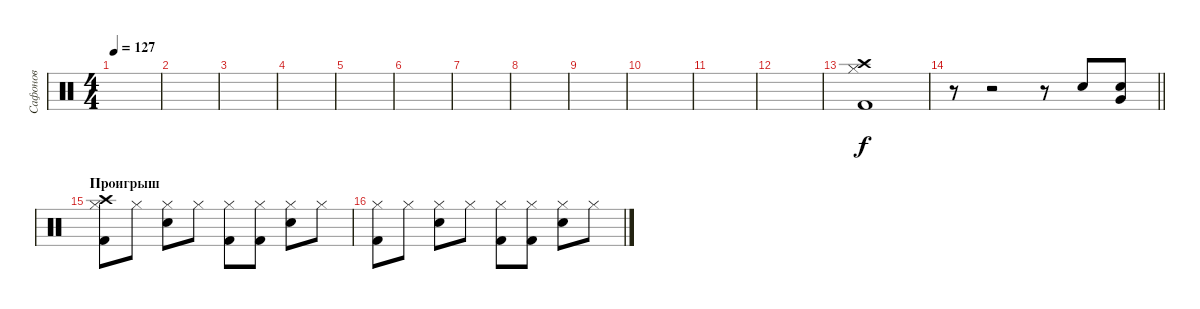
\track ("Сафонов" "Сафонов") {instrument percussion}
\staff {score}
\articulation defaults
\ts (4 4)
\tempo 127
\clef neutral
\ks c
|
|
|
|
|
|
|
|
|
|
|
|
("Crash high (hit)" "Hi-Hat (closed)" "Kick (hit) 2").1 |
\barLineRight lightlight
r.8 r.2 r.8 "Electric Snare (hit)".8 ("Very Low Tom (hit)" "Electric Snare (hit)").8 |
\section ("" "Проигрыш")
("Crash high (hit)" "Hi-Hat (closed)" "Kick (hit) 2").8 "Hi-Hat (closed)".8 ("Hi-Hat (closed)" "Electric Snare (hit)").8 "Hi-Hat (closed)".8 ("Hi-Hat (closed)" "Kick (hit) 2").8 ("Hi-Hat (closed)" "Kick (hit) 2").8 ("Hi-Hat (closed)" "Electric Snare (hit)").8 "Hi-Hat (closed)".8 |
("Hi-Hat (closed)" "Kick (hit) 2").8 "Hi-Hat (closed)".8 ("Hi-Hat (closed)" "Electric Snare (hit)").8 "Hi-Hat (closed)".8 ("Hi-Hat (closed)" "Kick (hit) 2").8 ("Hi-Hat (closed)" "Kick (hit) 2").8 ("Hi-Hat (closed)" "Electric Snare (hit)").8 "Hi-Hat (closed)".8
